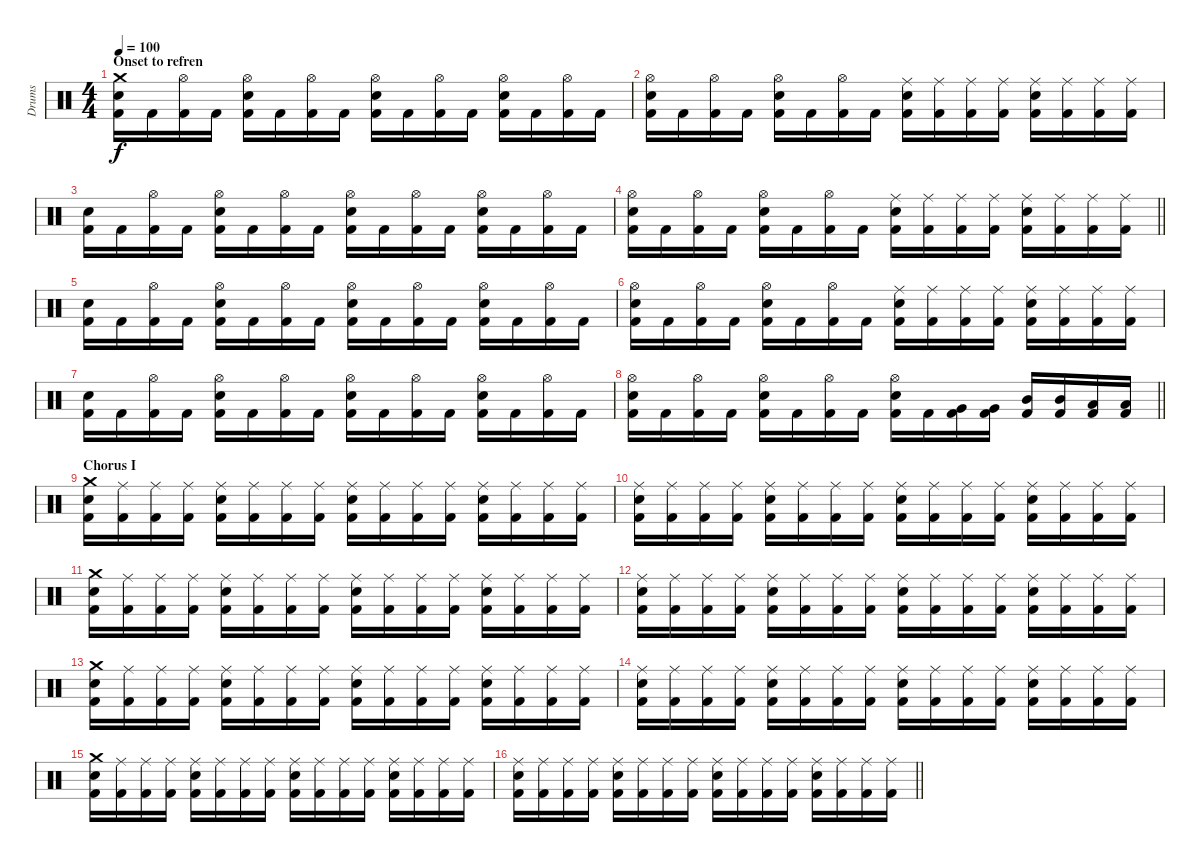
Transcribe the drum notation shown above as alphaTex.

\track ("Drums" "Drums") {instrument percussion}
\staff {score}
\articulation defaults
\ts (4 4)
\section ("" "Onset to refren")
\tempo 100
\clef neutral
\ks c
("Crash medium (hit)" "Snare (hit) 2" "Kick (hit) 2").16{dy f} "Kick (hit) 2".16 ("Hi-Hat (open)" "Kick (hit) 2").16 "Kick (hit) 2".16 ("Hi-Hat (open)" "Snare (hit) 2" "Kick (hit) 2").16 "Kick (hit) 2".16 ("Hi-Hat (open)" "Kick (hit) 2").16 "Kick (hit) 2".16 ("Hi-Hat (open)" "Snare (hit) 2" "Kick (hit) 2").16 "Kick (hit) 2".16 ("Hi-Hat (open)" "Kick (hit) 2").16 "Kick (hit) 2".16 ("Hi-Hat (open)" "Snare (hit) 2" "Kick (hit) 2").16 "Kick (hit) 2".16 ("Hi-Hat (open)" "Kick (hit) 2").16 "Kick (hit) 2".16 |
("Hi-Hat (open)" "Snare (hit) 2" "Kick (hit) 2").16 "Kick (hit) 2".16 ("Hi-Hat (open)" "Kick (hit) 2").16 "Kick (hit) 2".16 ("Hi-Hat (open)" "Snare (hit) 2" "Kick (hit) 2").16 "Kick (hit) 2".16 ("Hi-Hat (open)" "Kick (hit) 2").16 "Kick (hit) 2".16 ("Ride (middle)" "Snare (hit) 2" "Kick (hit) 2").16 ("Ride (middle)" "Kick (hit) 2").16 ("Ride (middle)" "Kick (hit) 2").16 ("Ride (middle)" "Kick (hit) 2").16 ("Ride (middle)" "Snare (hit) 2" "Kick (hit) 2").16 ("Ride (middle)" "Kick (hit) 2").16 ("Ride (middle)" "Kick (hit) 2").16 ("Ride (middle)" "Kick (hit) 2").16 |
("Snare (hit) 2" "Kick (hit) 2").16 "Kick (hit) 2".16 ("Hi-Hat (open)" "Kick (hit) 2").16 "Kick (hit) 2".16 ("Hi-Hat (open)" "Snare (hit) 2" "Kick (hit) 2").16 "Kick (hit) 2".16 ("Hi-Hat (open)" "Kick (hit) 2").16 "Kick (hit) 2".16 ("Hi-Hat (open)" "Snare (hit) 2" "Kick (hit) 2").16 "Kick (hit) 2".16 ("Hi-Hat (open)" "Kick (hit) 2").16 "Kick (hit) 2".16 ("Hi-Hat (open)" "Snare (hit) 2" "Kick (hit) 2").16 "Kick (hit) 2".16 ("Hi-Hat (open)" "Kick (hit) 2").16 "Kick (hit) 2".16 |
\barLineRight lightlight
("Hi-Hat (open)" "Snare (hit) 2" "Kick (hit) 2").16 "Kick (hit) 2".16 ("Hi-Hat (open)" "Kick (hit) 2").16 "Kick (hit) 2".16 ("Hi-Hat (open)" "Snare (hit) 2" "Kick (hit) 2").16 "Kick (hit) 2".16 ("Hi-Hat (open)" "Kick (hit) 2").16 "Kick (hit) 2".16 ("Ride (middle)" "Snare (hit) 2" "Kick (hit) 2").16 ("Ride (middle)" "Kick (hit) 2").16 ("Ride (middle)" "Kick (hit) 2").16 ("Ride (middle)" "Kick (hit) 2").16 ("Ride (middle)" "Snare (hit) 2" "Kick (hit) 2").16 ("Ride (middle)" "Kick (hit) 2").16 ("Ride (middle)" "Kick (hit) 2").16 ("Ride (middle)" "Kick (hit) 2").16 |
("Snare (hit) 2" "Kick (hit) 2").16 "Kick (hit) 2".16 ("Hi-Hat (open)" "Kick (hit) 2").16 "Kick (hit) 2".16 ("Hi-Hat (open)" "Snare (hit) 2" "Kick (hit) 2").16 "Kick (hit) 2".16 ("Hi-Hat (open)" "Kick (hit) 2").16 "Kick (hit) 2".16 ("Hi-Hat (open)" "Snare (hit) 2" "Kick (hit) 2").16 "Kick (hit) 2".16 ("Hi-Hat (open)" "Kick (hit) 2").16 "Kick (hit) 2".16 ("Hi-Hat (open)" "Snare (hit) 2" "Kick (hit) 2").16 "Kick (hit) 2".16 ("Hi-Hat (open)" "Kick (hit) 2").16 "Kick (hit) 2".16 |
("Hi-Hat (open)" "Snare (hit) 2" "Kick (hit) 2").16 "Kick (hit) 2".16 ("Hi-Hat (open)" "Kick (hit) 2").16 "Kick (hit) 2".16 ("Hi-Hat (open)" "Snare (hit) 2" "Kick (hit) 2").16 "Kick (hit) 2".16 ("Hi-Hat (open)" "Kick (hit) 2").16 "Kick (hit) 2".16 ("Ride (middle)" "Snare (hit) 2" "Kick (hit) 2").16 ("Ride (middle)" "Kick (hit) 2").16 ("Ride (middle)" "Kick (hit) 2").16 ("Ride (middle)" "Kick (hit) 2").16 ("Ride (middle)" "Snare (hit) 2" "Kick (hit) 2").16 ("Ride (middle)" "Kick (hit) 2").16 ("Ride (middle)" "Kick (hit) 2").16 ("Ride (middle)" "Kick (hit) 2").16 |
("Snare (hit) 2" "Kick (hit) 2").16 "Kick (hit) 2".16 ("Hi-Hat (open)" "Kick (hit) 2").16 "Kick (hit) 2".16 ("Hi-Hat (open)" "Snare (hit) 2" "Kick (hit) 2").16 "Kick (hit) 2".16 ("Hi-Hat (open)" "Kick (hit) 2").16 "Kick (hit) 2".16 ("Hi-Hat (open)" "Snare (hit) 2" "Kick (hit) 2").16 "Kick (hit) 2".16 ("Hi-Hat (open)" "Kick (hit) 2").16 "Kick (hit) 2".16 ("Hi-Hat (open)" "Snare (hit) 2" "Kick (hit) 2").16 "Kick (hit) 2".16 ("Hi-Hat (open)" "Kick (hit) 2").16 "Kick (hit) 2".16 |
\barLineRight lightlight
("Hi-Hat (open)" "Snare (hit) 2" "Kick (hit) 2").16 "Kick (hit) 2".16 ("Hi-Hat (open)" "Kick (hit) 2").16 "Kick (hit) 2".16 ("Hi-Hat (open)" "Snare (hit) 2" "Kick (hit) 2").16 "Kick (hit) 2".16 ("Hi-Hat (open)" "Kick (hit) 2").16 "Kick (hit) 2".16 ("Hi-Hat (open)" "Snare (hit) 2" "Kick (hit) 2").16 "Kick (hit) 2".16 ("Very Low Tom (hit)" "Kick (hit) 2").16 ("Very Low Tom (hit)" "Kick (hit) 2").16 ("Mid Tom (hit)" "Kick (hit) 2").16 ("Mid Tom (hit)" "Kick (hit) 2").16 ("Low Floor Tom (hit)" "Kick (hit) 2").16 ("Low Floor Tom (hit)" "Kick (hit) 2").16 |
\section ("" "Chorus I")
("Crash medium (hit)" "Snare (hit) 2" "Kick (hit) 2").16 ("Ride (middle)" "Kick (hit) 2").16 ("Ride (middle)" "Kick (hit) 2").16 ("Ride (middle)" "Kick (hit) 2").16 ("Ride (middle)" "Snare (hit) 2" "Kick (hit) 2").16 ("Ride (middle)" "Kick (hit) 2").16 ("Ride (middle)" "Kick (hit) 2").16 ("Ride (middle)" "Kick (hit) 2").16 ("Ride (middle)" "Snare (hit) 2" "Kick (hit) 2").16 ("Ride (middle)" "Kick (hit) 2").16 ("Ride (middle)" "Kick (hit) 2").16 ("Ride (middle)" "Kick (hit) 2").16 ("Ride (middle)" "Snare (hit) 2" "Kick (hit) 2").16 ("Ride (middle)" "Kick (hit) 2").16 ("Ride (middle)" "Kick (hit) 2").16 ("Ride (middle)" "Kick (hit) 2").16 |
("Ride (middle)" "Snare (hit) 2" "Kick (hit) 2").16 ("Ride (middle)" "Kick (hit) 2").16 ("Ride (middle)" "Kick (hit) 2").16 ("Ride (middle)" "Kick (hit) 2").16 ("Ride (middle)" "Snare (hit) 2" "Kick (hit) 2").16 ("Ride (middle)" "Kick (hit) 2").16 ("Ride (middle)" "Kick (hit) 2").16 ("Ride (middle)" "Kick (hit) 2").16 ("Ride (middle)" "Snare (hit) 2" "Kick (hit) 2").16 ("Ride (middle)" "Kick (hit) 2").16 ("Ride (middle)" "Kick (hit) 2").16 ("Ride (middle)" "Kick (hit) 2").16 ("Ride (middle)" "Snare (hit) 2" "Kick (hit) 2").16 ("Ride (middle)" "Kick (hit) 2").16 ("Ride (middle)" "Kick (hit) 2").16 ("Ride (middle)" "Kick (hit) 2").16 |
("Crash medium (hit)" "Snare (hit) 2" "Kick (hit) 2").16 ("Ride (middle)" "Kick (hit) 2").16 ("Ride (middle)" "Kick (hit) 2").16 ("Ride (middle)" "Kick (hit) 2").16 ("Ride (middle)" "Snare (hit) 2" "Kick (hit) 2").16 ("Ride (middle)" "Kick (hit) 2").16 ("Ride (middle)" "Kick (hit) 2").16 ("Ride (middle)" "Kick (hit) 2").16 ("Ride (middle)" "Snare (hit) 2" "Kick (hit) 2").16 ("Ride (middle)" "Kick (hit) 2").16 ("Ride (middle)" "Kick (hit) 2").16 ("Ride (middle)" "Kick (hit) 2").16 ("Ride (middle)" "Snare (hit) 2" "Kick (hit) 2").16 ("Ride (middle)" "Kick (hit) 2").16 ("Ride (middle)" "Kick (hit) 2").16 ("Ride (middle)" "Kick (hit) 2").16 |
("Ride (middle)" "Snare (hit) 2" "Kick (hit) 2").16 ("Ride (middle)" "Kick (hit) 2").16 ("Ride (middle)" "Kick (hit) 2").16 ("Ride (middle)" "Kick (hit) 2").16 ("Ride (middle)" "Snare (hit) 2" "Kick (hit) 2").16 ("Ride (middle)" "Kick (hit) 2").16 ("Ride (middle)" "Kick (hit) 2").16 ("Ride (middle)" "Kick (hit) 2").16 ("Ride (middle)" "Snare (hit) 2" "Kick (hit) 2").16 ("Ride (middle)" "Kick (hit) 2").16 ("Ride (middle)" "Kick (hit) 2").16 ("Ride (middle)" "Kick (hit) 2").16 ("Ride (middle)" "Snare (hit) 2" "Kick (hit) 2").16 ("Ride (middle)" "Kick (hit) 2").16 ("Ride (middle)" "Kick (hit) 2").16 ("Ride (middle)" "Kick (hit) 2").16 |
("Crash medium (hit)" "Snare (hit) 2" "Kick (hit) 2").16 ("Ride (middle)" "Kick (hit) 2").16 ("Ride (middle)" "Kick (hit) 2").16 ("Ride (middle)" "Kick (hit) 2").16 ("Ride (middle)" "Snare (hit) 2" "Kick (hit) 2").16 ("Ride (middle)" "Kick (hit) 2").16 ("Ride (middle)" "Kick (hit) 2").16 ("Ride (middle)" "Kick (hit) 2").16 ("Ride (middle)" "Snare (hit) 2" "Kick (hit) 2").16 ("Ride (middle)" "Kick (hit) 2").16 ("Ride (middle)" "Kick (hit) 2").16 ("Ride (middle)" "Kick (hit) 2").16 ("Ride (middle)" "Snare (hit) 2" "Kick (hit) 2").16 ("Ride (middle)" "Kick (hit) 2").16 ("Ride (middle)" "Kick (hit) 2").16 ("Ride (middle)" "Kick (hit) 2").16 |
("Ride (middle)" "Snare (hit) 2" "Kick (hit) 2").16 ("Ride (middle)" "Kick (hit) 2").16 ("Ride (middle)" "Kick (hit) 2").16 ("Ride (middle)" "Kick (hit) 2").16 ("Ride (middle)" "Snare (hit) 2" "Kick (hit) 2").16 ("Ride (middle)" "Kick (hit) 2").16 ("Ride (middle)" "Kick (hit) 2").16 ("Ride (middle)" "Kick (hit) 2").16 ("Ride (middle)" "Snare (hit) 2" "Kick (hit) 2").16 ("Ride (middle)" "Kick (hit) 2").16 ("Ride (middle)" "Kick (hit) 2").16 ("Ride (middle)" "Kick (hit) 2").16 ("Ride (middle)" "Snare (hit) 2" "Kick (hit) 2").16 ("Ride (middle)" "Kick (hit) 2").16 ("Ride (middle)" "Kick (hit) 2").16 ("Ride (middle)" "Kick (hit) 2").16 |
("Crash medium (hit)" "Snare (hit) 2" "Kick (hit) 2").16 ("Ride (middle)" "Kick (hit) 2").16 ("Ride (middle)" "Kick (hit) 2").16 ("Ride (middle)" "Kick (hit) 2").16 ("Ride (middle)" "Snare (hit) 2" "Kick (hit) 2").16 ("Ride (middle)" "Kick (hit) 2").16 ("Ride (middle)" "Kick (hit) 2").16 ("Ride (middle)" "Kick (hit) 2").16 ("Ride (middle)" "Snare (hit) 2" "Kick (hit) 2").16 ("Ride (middle)" "Kick (hit) 2").16 ("Ride (middle)" "Kick (hit) 2").16 ("Ride (middle)" "Kick (hit) 2").16 ("Ride (middle)" "Snare (hit) 2" "Kick (hit) 2").16 ("Ride (middle)" "Kick (hit) 2").16 ("Ride (middle)" "Kick (hit) 2").16 ("Ride (middle)" "Kick (hit) 2").16 |
\barLineRight lightlight
("Ride (middle)" "Snare (hit) 2" "Kick (hit) 2").16 ("Ride (middle)" "Kick (hit) 2").16 ("Ride (middle)" "Kick (hit) 2").16 ("Ride (middle)" "Kick (hit) 2").16 ("Ride (middle)" "Snare (hit) 2" "Kick (hit) 2").16 ("Ride (middle)" "Kick (hit) 2").16 ("Ride (middle)" "Kick (hit) 2").16 ("Ride (middle)" "Kick (hit) 2").16 ("Ride (middle)" "Snare (hit) 2" "Kick (hit) 2").16 ("Ride (middle)" "Kick (hit) 2").16 ("Ride (middle)" "Kick (hit) 2").16 ("Ride (middle)" "Kick (hit) 2").16 ("Ride (middle)" "Snare (hit) 2" "Kick (hit) 2").16 ("Ride (middle)" "Kick (hit) 2").16 ("Ride (middle)" "Kick (hit) 2").16 ("Ride (middle)" "Kick (hit) 2").16
